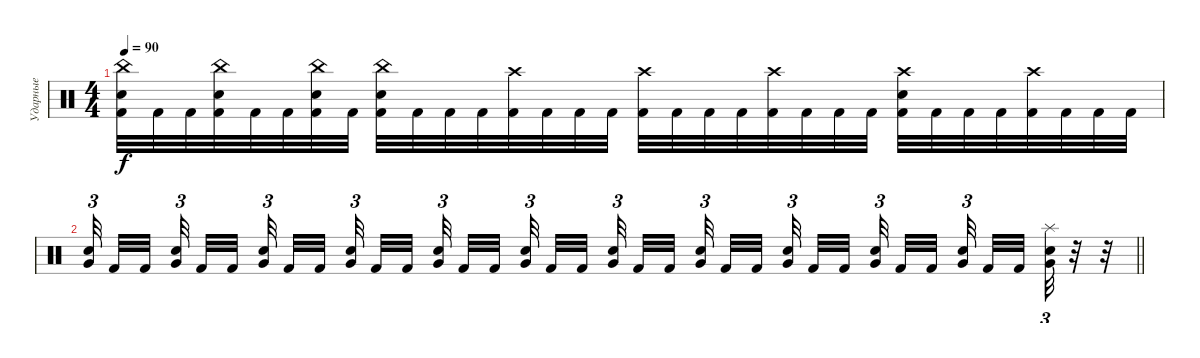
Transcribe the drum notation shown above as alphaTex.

\track ("Ударные" "Ударные") {instrument percussion}
\staff {score}
\articulation defaults
\ts (4 4)
\tempo 90
\clef neutral
\ks c
("China (hit)" "Electric Snare (hit)" "Kick (hit) 2").32{dy f} "Kick (hit) 2".32 "Kick (hit) 2".32 ("China (hit)" "Electric Snare (hit)" "Kick (hit) 2").32 "Kick (hit) 2".32 "Kick (hit) 2".32 ("China (hit)" "Electric Snare (hit)" "Kick (hit) 2").32 "Kick (hit) 2".32 ("China (hit)" "Electric Snare (hit)" "Kick (hit) 2").32 "Kick (hit) 2".32 "Kick (hit) 2".32 "Kick (hit) 2".32 ("Crash high (hit)" "Kick (hit) 2").32 "Kick (hit) 2".32 "Kick (hit) 2".32 "Kick (hit) 2".32 ("Crash high (hit)" "Kick (hit) 2").32 "Kick (hit) 2".32 "Kick (hit) 2".32 "Kick (hit) 2".32 ("Crash high (hit)" "Kick (hit) 2").32 "Kick (hit) 2".32 "Kick (hit) 2".32 "Kick (hit) 2".32 ("Crash high (hit)" "Electric Snare (hit)" "Kick (hit) 2").32 "Kick (hit) 2".32 "Kick (hit) 2".32 "Kick (hit) 2".32 ("Crash high (hit)" "Kick (hit) 2").32 "Kick (hit) 2".32 "Kick (hit) 2".32 "Kick (hit) 2".32 |
\barLineRight lightlight
("Very Low Tom (hit)" "Electric Snare (hit)").32{tu (3 2) beam splitsecondary} "Kick (hit) 2".32 "Kick (hit) 2".32{beam splitsecondary} ("Very Low Tom (hit)" "Electric Snare (hit)").32{tu (3 2) beam splitsecondary} "Kick (hit) 2".32 "Kick (hit) 2".32{beam splitsecondary} ("Very Low Tom (hit)" "Electric Snare (hit)").32{tu (3 2) beam splitsecondary} "Kick (hit) 2".32 "Kick (hit) 2".32 ("Very Low Tom (hit)" "Electric Snare (hit)").32{tu (3 2) beam splitsecondary} "Kick (hit) 2".32 "Kick (hit) 2".32{beam splitsecondary} ("Very Low Tom (hit)" "Electric Snare (hit)").32{tu (3 2) beam splitsecondary} "Kick (hit) 2".32 "Kick (hit) 2".32{beam splitsecondary} ("Very Low Tom (hit)" "Electric Snare (hit)").32{tu (3 2) beam splitsecondary} "Kick (hit) 2".32 "Kick (hit) 2".32 ("Very Low Tom (hit)" "Electric Snare (hit)").32{tu (3 2) beam splitsecondary} "Kick (hit) 2".32 "Kick (hit) 2".32{beam splitsecondary} ("Very Low Tom (hit)" "Electric Snare (hit)").32{tu (3 2) beam splitsecondary} "Kick (hit) 2".32 "Kick (hit) 2".32{beam splitsecondary} ("Very Low Tom (hit)" "Electric Snare (hit)").32{tu (3 2) beam splitsecondary} "Kick (hit) 2".32 "Kick (hit) 2".32 ("Very Low Tom (hit)" "Electric Snare (hit)").32{tu (3 2) beam splitsecondary} "Kick (hit) 2".32 "Kick (hit) 2".32{beam splitsecondary} ("Very Low Tom (hit)" "Electric Snare (hit)").32{tu (3 2) beam splitsecondary} "Kick (hit) 2".32 "Kick (hit) 2".32{beam splitsecondary} ("Splash (hit)" "Very Low Tom (hit)" "Electric Snare (hit)").32{tu (3 2)} r.32 r.32
